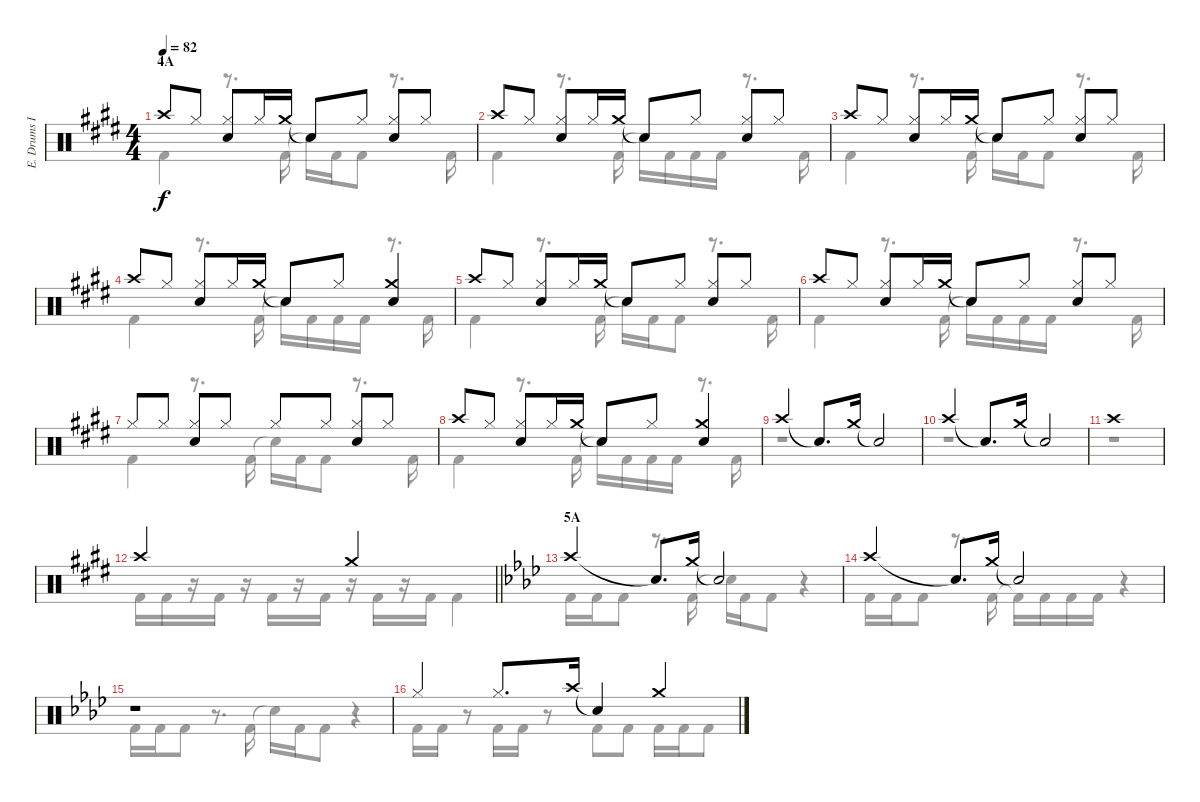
\track ("E. Drums I" "E. Drums I") {instrument percussion}
\staff {score}
\articulation defaults
\voice
\ts (4 4)
\section ("" "4A")
\tempo 82
\clef neutral
\ks e "Crash high (hit)".8{dy f} "Hi-Hat (closed)".8
("Hi-Hat (closed)" "Electric Snare (hit)").8 "Hi-Hat (closed)".16 "Crash medium (hit)".16 "Snare (hit)"{t}.8 "Hi-Hat (closed)".8 ("Hi-Hat (closed)" "Electric Snare (hit)").8 "Hi-Hat (closed)".8 |
"Crash high (hit)".8 "Hi-Hat (closed)".8 ("Hi-Hat (closed)" "Electric Snare (hit)").8 "Hi-Hat (closed)".16 "Crash medium (hit)".16 "Snare (hit)"{t}.8 "Hi-Hat (closed)".8 ("Hi-Hat (closed)" "Electric Snare (hit)").8 "Hi-Hat (closed)".8 |
"Crash high (hit)".8 "Hi-Hat (closed)".8 ("Hi-Hat (closed)" "Electric Snare (hit)").8 "Hi-Hat (closed)".16 "Crash medium (hit)".16 "Snare (hit)"{t}.8 "Hi-Hat (closed)".8 ("Hi-Hat (closed)" "Electric Snare (hit)").8 "Hi-Hat (closed)".8 |
"Crash high (hit)".8 "Hi-Hat (closed)".8 ("Hi-Hat (closed)" "Electric Snare (hit)").8 "Hi-Hat (closed)".16 "Crash medium (hit)".16 "Snare (hit)"{t}.8 "Hi-Hat (closed)".8 ("Crash medium (hit)" "Electric Snare (hit)").4 |
"Crash high (hit)".8 "Hi-Hat (closed)".8 ("Hi-Hat (closed)" "Electric Snare (hit)").8 "Hi-Hat (closed)".16 "Crash medium (hit)".16 "Snare (hit)"{t}.8 "Hi-Hat (closed)".8 ("Hi-Hat (closed)" "Electric Snare (hit)").8 "Hi-Hat (closed)".8 |
"Crash high (hit)".8 "Hi-Hat (closed)".8 ("Hi-Hat (closed)" "Electric Snare (hit)").8 "Hi-Hat (closed)".16 "Crash medium (hit)".16 "Snare (hit)"{t}.8 "Hi-Hat (closed)".8 ("Hi-Hat (closed)" "Electric Snare (hit)").8 "Hi-Hat (closed)".8 |
"Hi-Hat (closed)".8 "Hi-Hat (closed)".8 ("Hi-Hat (closed)" "Electric Snare (hit)").8 "Hi-Hat (closed)".8 "Hi-Hat (closed)".8 "Hi-Hat (closed)".8 ("Hi-Hat (closed)" "Electric Snare (hit)").8 "Hi-Hat (closed)".8 |
"Crash high (hit)".8 "Hi-Hat (closed)".8 ("Hi-Hat (closed)" "Electric Snare (hit)").8 "Hi-Hat (closed)".16 "Crash medium (hit)".16 "Snare (hit)"{t}.8 "Hi-Hat (closed)".8 ("Crash medium (hit)" "Electric Snare (hit)").4 |
"Crash high (hit)".4 "Snare (hit)"{t}.8{d} "Crash medium (hit)".16 "Snare (hit)"{t}.2 |
"Crash high (hit)".4 "Snare (hit)"{t}.8{d} "Crash medium (hit)".16 "Snare (hit)"{t}.2 |
"Crash high (hit)".1 |
\barLineRight lightlight "Crash high (hit)".2 "Crash medium (hit)".2
|
\section ("" "5A")
\ks ab "Crash high (hit)".4 "Snare (hit)"{t}.8{d} "Crash medium (hit)".16 "Snare (hit)"{t}.2
|
"Crash high (hit)".4 "Snare (hit)"{t}.8{d} "Crash medium (hit)".16 "Snare (hit)"{t}.2 |
r.1 |
"Hi-Hat (closed)".4 "Hi-Hat (closed)".8{d} "Crash high (hit)".16 "Snare (hit)"{t}.4 "Crash medium (hit)".4
\voice
\clef neutral
\ottava regular
\simile none
\ks e "Kick (hit) 2".4{dy f}
r.8{d} "Kick (hit) 2".16 "Snare (hit)"{t}.16 "Kick (hit) 2".16 "Kick (hit) 2".8 r.8{d} "Kick (hit) 2".16 |
"Kick (hit) 2".4 r.8{d} "Kick (hit) 2".16 "Snare (hit)"{t}.16 "Kick (hit) 2".16 "Kick (hit) 2".16 "Kick (hit) 2".16 r.8{d} "Kick (hit) 2".16 |
"Kick (hit) 2".4 r.8{d} "Kick (hit) 2".16 "Snare (hit)"{t}.16 "Kick (hit) 2".16 "Kick (hit) 2".8 r.8{d} "Kick (hit) 2".16 |
"Kick (hit) 2".4 r.8{d} "Kick (hit) 2".16 "Snare (hit)"{t}.16 "Kick (hit) 2".16 "Kick (hit) 2".16 "Kick (hit) 2".16 r.8{d} "Kick (hit) 2".16 |
"Kick (hit) 2".4 r.8{d} "Kick (hit) 2".16 "Snare (hit)"{t}.16 "Kick (hit) 2".16 "Kick (hit) 2".8 r.8{d} "Kick (hit) 2".16 |
"Kick (hit) 2".4 r.8{d} "Kick (hit) 2".16 "Snare (hit)"{t}.16 "Kick (hit) 2".16 "Kick (hit) 2".16 "Kick (hit) 2".16 r.8{d} "Kick (hit) 2".16 |
"Kick (hit) 2".4 r.8{d} "Kick (hit) 2".16 "Snare (hit)"{t}.16 "Kick (hit) 2".16 "Kick (hit) 2".8 r.8{d} "Kick (hit) 2".16 |
"Kick (hit) 2".4 r.8{d} "Kick (hit) 2".16 "Snare (hit)"{t}.16 "Kick (hit) 2".16 "Kick (hit) 2".16 "Kick (hit) 2".16 r.8{d} "Kick (hit) 2".16 |
r.1 |
r.1 |
r.1 |
\barLineRight lightlight "Kick (hit) 2".16 "Kick (hit) 2".16
r.16 "Kick (hit) 2".16 r.16 "Kick (hit) 2".16 r.16 "Kick (hit) 2".16 r.16 "Kick (hit) 2".16 r.16 "Kick (hit) 2".16 "Kick (hit) 2".4 |
\ks ab "Kick (hit) 2".16 "Kick (hit) 2".16 "Kick (hit) 2".8
r.8{d} "Kick (hit) 2".16 "Snare (hit)"{t}.16 "Kick (hit) 2".16 "Kick (hit) 2".8 r.4 |
"Kick (hit) 2".16 "Kick (hit) 2".16 "Kick (hit) 2".8 r.8{d} "Kick (hit) 2".16 "Kick (hit) 2"{t}.16 "Kick (hit) 2".16 "Kick (hit) 2".16 "Kick (hit) 2".16 r.4 |
"Kick (hit) 2".16 "Kick (hit) 2".16 "Kick (hit) 2".8 r.8{d} "Kick (hit) 2".16 "Snare (hit)"{t}.16 "Kick (hit) 2".16 "Kick (hit) 2".8 r.4 |
"Kick (hit) 2".16 "Kick (hit) 2".16 r.8 "Kick (hit) 2".16 "Kick (hit) 2".16 r.8 "Kick (hit) 2".8 "Kick (hit) 2".8 "Kick (hit) 2".16 "Kick (hit) 2".16 "Kick (hit) 2".8
